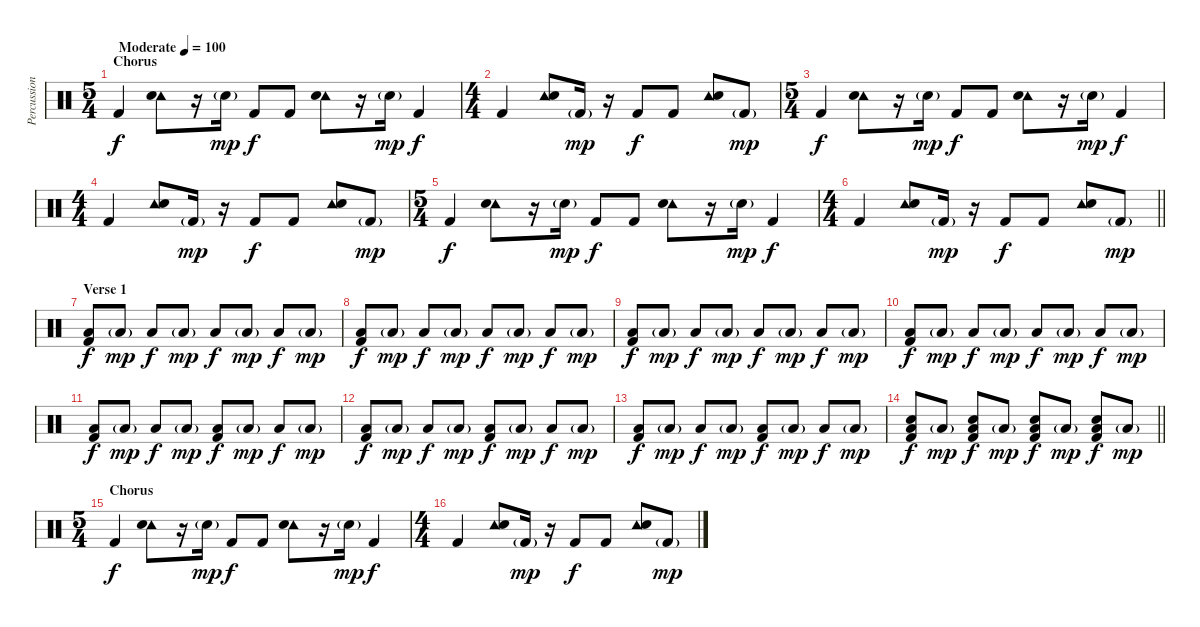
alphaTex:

\track ("Percussion" "Percussion") {instrument percussion}
\staff {score}
\articulation defaults
\ts (5 4)
\section ("" "Chorus")
\tempo (100 "Moderate")
\clef neutral
\ks c "Kick (hit) 2".4{dy f volume 5}
("Tambourine (hit)" "Snare (hit) 2").8 r.16 "Snare (hit) 2"{g}.16{dy mp} "Kick (hit) 2".8{dy f} "Kick (hit) 2".8 ("Tambourine (hit)" "Snare (hit) 2").8 r.16 "Snare (hit) 2"{g}.16{dy mp} "Kick (hit) 2".4{dy f} |
\ts (4 4)
"Kick (hit) 2".4 ("Tambourine (hit)" "Snare (hit) 2").8 "Kick (hit) 2"{g}.16{dy mp} r.16 "Kick (hit) 2".8{dy f} "Kick (hit) 2".8 ("Tambourine (hit)" "Snare (hit) 2").8 "Kick (hit) 2"{g}.8{dy mp} |
\ts (5 4)
"Kick (hit) 2".4{dy f} ("Tambourine (hit)" "Snare (hit) 2").8 r.16 "Snare (hit) 2"{g}.16{dy mp} "Kick (hit) 2".8{dy f} "Kick (hit) 2".8 ("Tambourine (hit)" "Snare (hit) 2").8 r.16 "Snare (hit) 2"{g}.16{dy mp} "Kick (hit) 2".4{dy f} |
\ts (4 4)
"Kick (hit) 2".4 ("Tambourine (hit)" "Snare (hit) 2").8 "Kick (hit) 2"{g}.16{dy mp} r.16 "Kick (hit) 2".8{dy f} "Kick (hit) 2".8 ("Tambourine (hit)" "Snare (hit) 2").8 "Kick (hit) 2"{g}.8{dy mp} |
\ts (5 4)
"Kick (hit) 2".4{dy f} ("Tambourine (hit)" "Snare (hit) 2").8 r.16 "Snare (hit) 2"{g}.16{dy mp} "Kick (hit) 2".8{dy f} "Kick (hit) 2".8 ("Tambourine (hit)" "Snare (hit) 2").8 r.16 "Snare (hit) 2"{g}.16{dy mp} "Kick (hit) 2".4{dy f} |
\ts (4 4)
\barLineRight lightlight "Kick (hit) 2".4
("Tambourine (hit)" "Snare (hit) 2").8 "Kick (hit) 2"{g}.16{dy mp} r.16 "Kick (hit) 2".8{dy f} "Kick (hit) 2".8 ("Tambourine (hit)" "Snare (hit) 2").8 "Kick (hit) 2"{g}.8{dy mp} |
\section ("" "Verse 1")
("Low Floor Tom (hit)" "Kick (hit) 2").8{dy f volume 3} "Low Floor Tom (hit)"{g}.8{dy mp} "Low Floor Tom (hit)".8{dy f} "Low Floor Tom (hit)"{g}.8{dy mp} "Low Floor Tom (hit)".8{dy f} "Low Floor Tom (hit)"{g}.8{dy mp} "Low Floor Tom (hit)".8{dy f} "Low Floor Tom (hit)"{g}.8{dy mp} |
("Low Floor Tom (hit)" "Kick (hit) 2").8{dy f} "Low Floor Tom (hit)"{g}.8{dy mp} "Low Floor Tom (hit)".8{dy f} "Low Floor Tom (hit)"{g}.8{dy mp} "Low Floor Tom (hit)".8{dy f} "Low Floor Tom (hit)"{g}.8{dy mp} "Low Floor Tom (hit)".8{dy f} "Low Floor Tom (hit)"{g}.8{dy mp} |
("Low Floor Tom (hit)" "Kick (hit) 2").8{dy f} "Low Floor Tom (hit)"{g}.8{dy mp} "Low Floor Tom (hit)".8{dy f} "Low Floor Tom (hit)"{g}.8{dy mp} "Low Floor Tom (hit)".8{dy f} "Low Floor Tom (hit)"{g}.8{dy mp} "Low Floor Tom (hit)".8{dy f} "Low Floor Tom (hit)"{g}.8{dy mp} |
("Low Floor Tom (hit)" "Kick (hit) 2").8{dy f} "Low Floor Tom (hit)"{g}.8{dy mp} "Low Floor Tom (hit)".8{dy f} "Low Floor Tom (hit)"{g}.8{dy mp} "Low Floor Tom (hit)".8{dy f} "Low Floor Tom (hit)"{g}.8{dy mp} "Low Floor Tom (hit)".8{dy f} "Low Floor Tom (hit)"{g}.8{dy mp} |
("Low Floor Tom (hit)" "Kick (hit) 2").8{dy f} "Low Floor Tom (hit)"{g}.8{dy mp} "Low Floor Tom (hit)".8{dy f} "Low Floor Tom (hit)"{g}.8{dy mp} ("Low Floor Tom (hit)" "Kick (hit) 2").8{dy f} "Low Floor Tom (hit)"{g}.8{dy mp} "Low Floor Tom (hit)".8{dy f} "Low Floor Tom (hit)"{g}.8{dy mp} |
("Low Floor Tom (hit)" "Kick (hit) 2").8{dy f} "Low Floor Tom (hit)"{g}.8{dy mp} "Low Floor Tom (hit)".8{dy f} "Low Floor Tom (hit)"{g}.8{dy mp} ("Low Floor Tom (hit)" "Kick (hit) 2").8{dy f} "Low Floor Tom (hit)"{g}.8{dy mp} "Low Floor Tom (hit)".8{dy f} "Low Floor Tom (hit)"{g}.8{dy mp} |
("Low Floor Tom (hit)" "Kick (hit) 2").8{dy f} "Low Floor Tom (hit)"{g}.8{dy mp} "Low Floor Tom (hit)".8{dy f} "Low Floor Tom (hit)"{g}.8{dy mp} ("Low Floor Tom (hit)" "Kick (hit) 2").8{dy f} "Low Floor Tom (hit)"{g}.8{dy mp} "Low Floor Tom (hit)".8{dy f} "Low Floor Tom (hit)"{g}.8{dy mp} |
\barLineRight lightlight
("Snare (hit) 2" "Low Floor Tom (hit)" "Kick (hit) 2").8{dy f} "Low Floor Tom (hit)"{g}.8{dy mp} ("Snare (hit) 2" "Low Floor Tom (hit)" "Kick (hit) 2").8{dy f} "Low Floor Tom (hit)"{g}.8{dy mp} ("Snare (hit) 2" "Low Floor Tom (hit)" "Kick (hit) 2").8{dy f} "Low Floor Tom (hit)"{g}.8{dy mp} ("Snare (hit) 2" "Low Floor Tom (hit)" "Kick (hit) 2").8{dy f} "Low Floor Tom (hit)"{g}.8{dy mp} |
\ts (5 4)
\section ("" "Chorus")
"Kick (hit) 2".4{dy f volume 5} ("Tambourine (hit)" "Snare (hit) 2").8 r.16 "Snare (hit) 2"{g}.16{dy mp} "Kick (hit) 2".8{dy f} "Kick (hit) 2".8 ("Tambourine (hit)" "Snare (hit) 2").8 r.16 "Snare (hit) 2"{g}.16{dy mp} "Kick (hit) 2".4{dy f} |
\ts (4 4)
"Kick (hit) 2".4 ("Tambourine (hit)" "Snare (hit) 2").8 "Kick (hit) 2"{g}.16{dy mp} r.16 "Kick (hit) 2".8{dy f} "Kick (hit) 2".8 ("Tambourine (hit)" "Snare (hit) 2").8 "Kick (hit) 2"{g}.8{dy mp}
